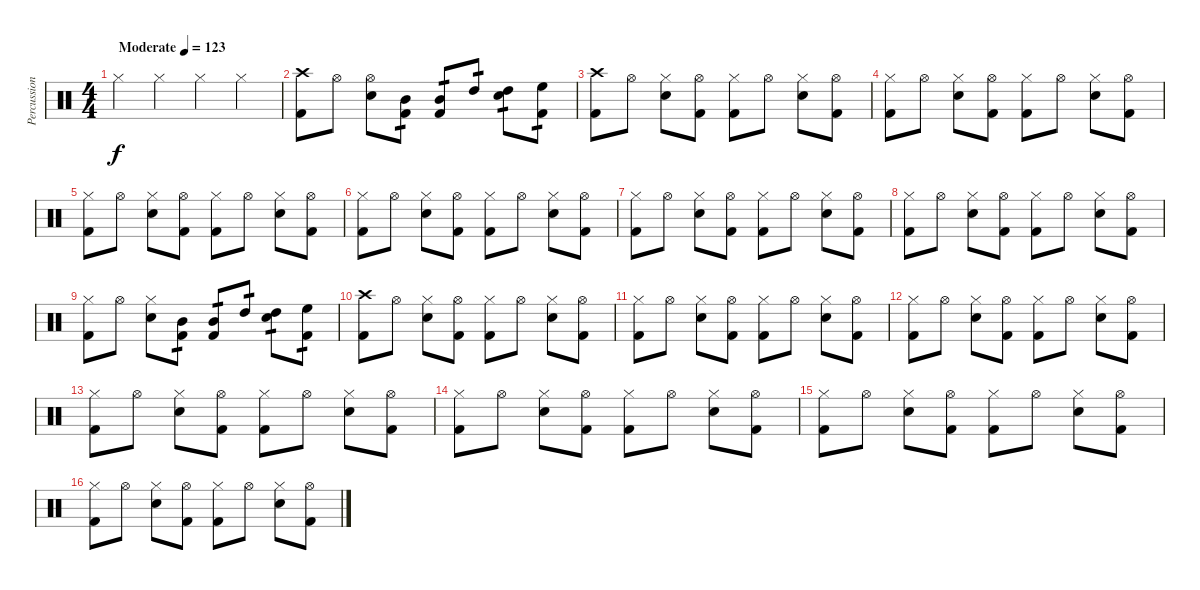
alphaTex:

\track ("Percussion" "Percussion") {instrument percussion}
\staff {score}
\articulation defaults
\ts (4 4)
\tempo (123 "Moderate")
\clef neutral
\ks c "Hi-Hat (closed)".4{dy f} "Hi-Hat (closed)".4 "Hi-Hat (closed)".4 "Hi-Hat (closed)".4
|
("Crash high (hit)" "Kick (hit) 2").8 "Hi-Hat (open)".8 ("Hi-Hat (open)" "Electric Snare (hit)").8 ("Mid Tom (hit)" "Kick (hit) 2").8{tp 1} ("Mid Tom (hit)" "Kick (hit) 2").8{tp 1} "High Tom (hit)".8{tp 1} ("High Tom (hit)" "Electric Snare (hit)").8{tp 1} ("High Floor Tom (hit)" "Kick (hit) 2").8{tp 1} |
("Crash high (hit)" "Kick (hit) 2").8 "Hi-Hat (open)".8 ("Hi-Hat (closed)" "Electric Snare (hit)").8 ("Hi-Hat (open)" "Kick (hit) 2").8 ("Hi-Hat (closed)" "Kick (hit) 2").8 "Hi-Hat (open)".8 ("Hi-Hat (closed)" "Electric Snare (hit)").8 ("Hi-Hat (open)" "Kick (hit) 2").8 |
("Hi-Hat (closed)" "Kick (hit) 2").8 "Hi-Hat (open)".8 ("Hi-Hat (closed)" "Electric Snare (hit)").8 ("Hi-Hat (open)" "Kick (hit) 2").8 ("Hi-Hat (closed)" "Kick (hit) 2").8 "Hi-Hat (open)".8 ("Hi-Hat (closed)" "Electric Snare (hit)").8 ("Hi-Hat (open)" "Kick (hit) 2").8 |
("Hi-Hat (closed)" "Kick (hit) 2").8 "Hi-Hat (open)".8 ("Hi-Hat (closed)" "Electric Snare (hit)").8 ("Hi-Hat (open)" "Kick (hit) 2").8 ("Hi-Hat (closed)" "Kick (hit) 2").8 "Hi-Hat (open)".8 ("Hi-Hat (closed)" "Electric Snare (hit)").8 ("Hi-Hat (open)" "Kick (hit) 2").8 |
("Hi-Hat (closed)" "Kick (hit) 2").8 "Hi-Hat (open)".8 ("Hi-Hat (closed)" "Electric Snare (hit)").8 ("Hi-Hat (open)" "Kick (hit) 2").8 ("Hi-Hat (closed)" "Kick (hit) 2").8 "Hi-Hat (open)".8 ("Hi-Hat (closed)" "Electric Snare (hit)").8 ("Hi-Hat (open)" "Kick (hit) 2").8 |
("Hi-Hat (closed)" "Kick (hit) 2").8 "Hi-Hat (open)".8 ("Hi-Hat (closed)" "Electric Snare (hit)").8 ("Hi-Hat (open)" "Kick (hit) 2").8 ("Hi-Hat (closed)" "Kick (hit) 2").8 "Hi-Hat (open)".8 ("Hi-Hat (closed)" "Electric Snare (hit)").8 ("Hi-Hat (open)" "Kick (hit) 2").8 |
("Hi-Hat (closed)" "Kick (hit) 2").8 "Hi-Hat (open)".8 ("Hi-Hat (closed)" "Electric Snare (hit)").8 ("Hi-Hat (open)" "Kick (hit) 2").8 ("Hi-Hat (closed)" "Kick (hit) 2").8 "Hi-Hat (open)".8 ("Hi-Hat (closed)" "Electric Snare (hit)").8 ("Hi-Hat (open)" "Kick (hit) 2").8 |
("Hi-Hat (closed)" "Kick (hit) 2").8 "Hi-Hat (open)".8 ("Hi-Hat (closed)" "Electric Snare (hit)").8 ("Mid Tom (hit)" "Kick (hit) 2").8{tp 1} ("Mid Tom (hit)" "Kick (hit) 2").8{tp 1} "High Tom (hit)".8{tp 1} ("High Tom (hit)" "Electric Snare (hit)").8{tp 1} ("High Floor Tom (hit)" "Kick (hit) 2").8{tp 1} |
("Crash high (hit)" "Kick (hit) 2").8 "Hi-Hat (open)".8 ("Hi-Hat (closed)" "Electric Snare (hit)").8 ("Hi-Hat (open)" "Kick (hit) 2").8 ("Hi-Hat (closed)" "Kick (hit) 2").8 "Hi-Hat (open)".8 ("Hi-Hat (closed)" "Electric Snare (hit)").8 ("Hi-Hat (open)" "Kick (hit) 2").8 |
("Hi-Hat (closed)" "Kick (hit) 2").8 "Hi-Hat (open)".8 ("Hi-Hat (closed)" "Electric Snare (hit)").8 ("Hi-Hat (open)" "Kick (hit) 2").8 ("Hi-Hat (closed)" "Kick (hit) 2").8 "Hi-Hat (open)".8 ("Hi-Hat (closed)" "Electric Snare (hit)").8 ("Hi-Hat (open)" "Kick (hit) 2").8 |
("Hi-Hat (closed)" "Kick (hit) 2").8 "Hi-Hat (open)".8 ("Hi-Hat (closed)" "Electric Snare (hit)").8 ("Hi-Hat (open)" "Kick (hit) 2").8 ("Hi-Hat (closed)" "Kick (hit) 2").8 "Hi-Hat (open)".8 ("Hi-Hat (closed)" "Electric Snare (hit)").8 ("Hi-Hat (open)" "Kick (hit) 2").8 |
("Hi-Hat (closed)" "Kick (hit) 2").8 "Hi-Hat (open)".8 ("Hi-Hat (closed)" "Electric Snare (hit)").8 ("Hi-Hat (open)" "Kick (hit) 2").8 ("Hi-Hat (closed)" "Kick (hit) 2").8 "Hi-Hat (open)".8 ("Hi-Hat (closed)" "Electric Snare (hit)").8 ("Hi-Hat (open)" "Kick (hit) 2").8 |
("Hi-Hat (closed)" "Kick (hit) 2").8 "Hi-Hat (open)".8 ("Hi-Hat (closed)" "Electric Snare (hit)").8 ("Hi-Hat (open)" "Kick (hit) 2").8 ("Hi-Hat (closed)" "Kick (hit) 2").8 "Hi-Hat (open)".8 ("Hi-Hat (closed)" "Electric Snare (hit)").8 ("Hi-Hat (open)" "Kick (hit) 2").8 |
("Hi-Hat (closed)" "Kick (hit) 2").8 "Hi-Hat (open)".8 ("Hi-Hat (closed)" "Electric Snare (hit)").8 ("Hi-Hat (open)" "Kick (hit) 2").8 ("Hi-Hat (closed)" "Kick (hit) 2").8 "Hi-Hat (open)".8 ("Hi-Hat (closed)" "Electric Snare (hit)").8 ("Hi-Hat (open)" "Kick (hit) 2").8 |
("Hi-Hat (closed)" "Kick (hit) 2").8 "Hi-Hat (open)".8 ("Hi-Hat (closed)" "Electric Snare (hit)").8 ("Hi-Hat (open)" "Kick (hit) 2").8 ("Hi-Hat (closed)" "Kick (hit) 2").8 "Hi-Hat (open)".8 ("Hi-Hat (closed)" "Electric Snare (hit)").8 ("Hi-Hat (open)" "Kick (hit) 2").8
